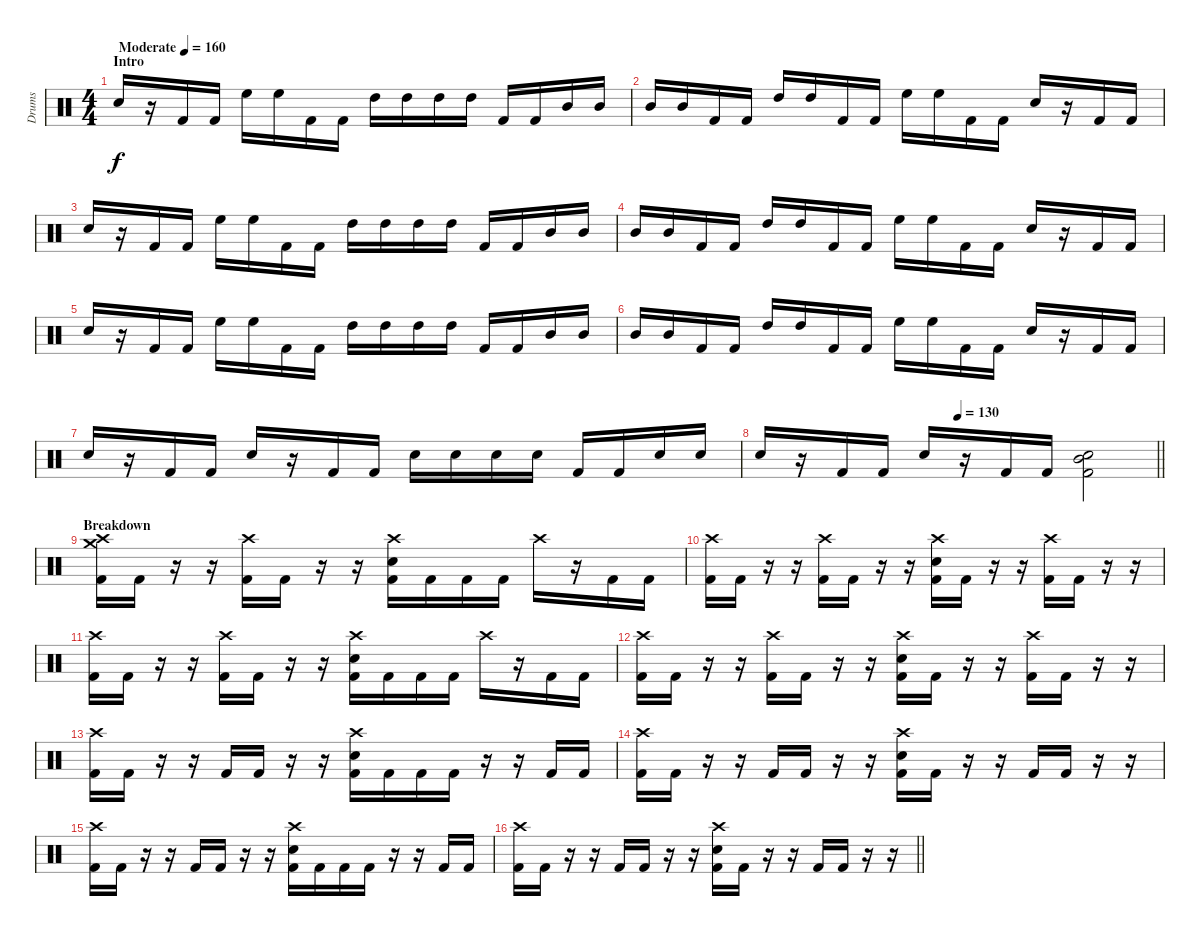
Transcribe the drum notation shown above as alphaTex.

\track ("Drums" "Drums") {instrument percussion}
\staff {score}
\articulation defaults
\ts (4 4)
\section ("" "Intro")
\tempo (160 "Moderate")
\clef neutral
\ks c "Electric Snare (hit)".16{dy f}
r.16 "Kick (hit) 2".16 "Kick (hit) 2".16 "High Floor Tom (hit)".16 "High Floor Tom (hit)".16 "Kick (hit) 2".16 "Kick (hit) 2".16 "High Tom (hit)".16 "High Tom (hit)".16 "High Tom (hit)".16 "High Tom (hit)".16 "Kick (hit) 2".16 "Kick (hit) 2".16 "Mid Tom (hit)".16 "Mid Tom (hit)".16 |
"Mid Tom (hit)".16 "Mid Tom (hit)".16 "Kick (hit) 2".16 "Kick (hit) 2".16 "High Tom (hit)".16 "High Tom (hit)".16 "Kick (hit) 2".16 "Kick (hit) 2".16 "High Floor Tom (hit)".16 "High Floor Tom (hit)".16 "Kick (hit) 2".16 "Kick (hit) 2".16 "Electric Snare (hit)".16 r.16 "Kick (hit) 2".16 "Kick (hit) 2".16 |
"Electric Snare (hit)".16 r.16 "Kick (hit) 2".16 "Kick (hit) 2".16 "High Floor Tom (hit)".16 "High Floor Tom (hit)".16 "Kick (hit) 2".16 "Kick (hit) 2".16 "High Tom (hit)".16 "High Tom (hit)".16 "High Tom (hit)".16 "High Tom (hit)".16 "Kick (hit) 2".16 "Kick (hit) 2".16 "Mid Tom (hit)".16 "Mid Tom (hit)".16 |
"Mid Tom (hit)".16 "Mid Tom (hit)".16 "Kick (hit) 2".16 "Kick (hit) 2".16 "High Tom (hit)".16 "High Tom (hit)".16 "Kick (hit) 2".16 "Kick (hit) 2".16 "High Floor Tom (hit)".16 "High Floor Tom (hit)".16 "Kick (hit) 2".16 "Kick (hit) 2".16 "Electric Snare (hit)".16 r.16 "Kick (hit) 2".16 "Kick (hit) 2".16 |
"Electric Snare (hit)".16 r.16 "Kick (hit) 2".16 "Kick (hit) 2".16 "High Floor Tom (hit)".16 "High Floor Tom (hit)".16 "Kick (hit) 2".16 "Kick (hit) 2".16 "High Tom (hit)".16 "High Tom (hit)".16 "High Tom (hit)".16 "High Tom (hit)".16 "Kick (hit) 2".16 "Kick (hit) 2".16 "Mid Tom (hit)".16 "Mid Tom (hit)".16 |
"Mid Tom (hit)".16 "Mid Tom (hit)".16 "Kick (hit) 2".16 "Kick (hit) 2".16 "High Tom (hit)".16 "High Tom (hit)".16 "Kick (hit) 2".16 "Kick (hit) 2".16 "High Floor Tom (hit)".16 "High Floor Tom (hit)".16 "Kick (hit) 2".16 "Kick (hit) 2".16 "Electric Snare (hit)".16 r.16 "Kick (hit) 2".16 "Kick (hit) 2".16 |
"Electric Snare (hit)".16 r.16 "Kick (hit) 2".16 "Kick (hit) 2".16 "Electric Snare (hit)".16 r.16 "Kick (hit) 2".16 "Kick (hit) 2".16 "Electric Snare (hit)".16 "Electric Snare (hit)".16 "Electric Snare (hit)".16 "Electric Snare (hit)".16 "Kick (hit) 2".16 "Kick (hit) 2".16 "Electric Snare (hit)".16 "Electric Snare (hit)".16 |
\tempo (130 0.5)
\barLineRight lightlight "Electric Snare (hit)".16
r.16 "Kick (hit) 2".16 "Kick (hit) 2".16 "Electric Snare (hit)".16 r.16 "Kick (hit) 2".16 "Kick (hit) 2".16 ("Mid Tom (hit)" "Electric Snare (hit)" "Kick (hit) 2").2 |
\section ("" "Breakdown")
("Crash medium (hit)" "Crash high (hit)" "Kick (hit) 2").16 "Kick (hit) 2".16 r.16 r.16 ("Crash high (hit)" "Kick (hit) 2").16 "Kick (hit) 2".16 r.16 r.16 ("Crash high (hit)" "Electric Snare (hit)" "Kick (hit) 2").16 "Kick (hit) 2".16 "Kick (hit) 2".16 "Kick (hit) 2".16 "Crash high (hit)".16 r.16 "Kick (hit) 2".16 "Kick (hit) 2".16 |
("Crash high (hit)" "Kick (hit) 2").16 "Kick (hit) 2".16 r.16 r.16 ("Crash high (hit)" "Kick (hit) 2").16 "Kick (hit) 2".16 r.16 r.16 ("Crash high (hit)" "Electric Snare (hit)" "Kick (hit) 2").16 "Kick (hit) 2".16 r.16 r.16 ("Crash high (hit)" "Kick (hit) 2").16 "Kick (hit) 2".16 r.16 r.16 |
("Crash high (hit)" "Kick (hit) 2").16 "Kick (hit) 2".16 r.16 r.16 ("Crash high (hit)" "Kick (hit) 2").16 "Kick (hit) 2".16 r.16 r.16 ("Crash high (hit)" "Electric Snare (hit)" "Kick (hit) 2").16 "Kick (hit) 2".16 "Kick (hit) 2".16 "Kick (hit) 2".16 "Crash high (hit)".16 r.16 "Kick (hit) 2".16 "Kick (hit) 2".16 |
("Crash high (hit)" "Kick (hit) 2").16 "Kick (hit) 2".16 r.16 r.16 ("Crash high (hit)" "Kick (hit) 2").16 "Kick (hit) 2".16 r.16 r.16 ("Crash high (hit)" "Electric Snare (hit)" "Kick (hit) 2").16 "Kick (hit) 2".16 r.16 r.16 ("Crash high (hit)" "Kick (hit) 2").16 "Kick (hit) 2".16 r.16 r.16 |
("Crash high (hit)" "Kick (hit) 2").16 "Kick (hit) 2".16 r.16 r.16 "Kick (hit) 2".16 "Kick (hit) 2".16 r.16 r.16 ("Crash high (hit)" "Electric Snare (hit)" "Kick (hit) 2").16 "Kick (hit) 2".16 "Kick (hit) 2".16 "Kick (hit) 2".16 r.16 r.16 "Kick (hit) 2".16 "Kick (hit) 2".16 |
("Crash high (hit)" "Kick (hit) 2").16 "Kick (hit) 2".16 r.16 r.16 "Kick (hit) 2".16 "Kick (hit) 2".16 r.16 r.16 ("Crash high (hit)" "Electric Snare (hit)" "Kick (hit) 2").16 "Kick (hit) 2".16 r.16 r.16 "Kick (hit) 2".16 "Kick (hit) 2".16 r.16 r.16 |
("Crash high (hit)" "Kick (hit) 2").16 "Kick (hit) 2".16 r.16 r.16 "Kick (hit) 2".16 "Kick (hit) 2".16 r.16 r.16 ("Crash high (hit)" "Electric Snare (hit)" "Kick (hit) 2").16 "Kick (hit) 2".16 "Kick (hit) 2".16 "Kick (hit) 2".16 r.16 r.16 "Kick (hit) 2".16 "Kick (hit) 2".16 |
\barLineRight lightlight
("Crash high (hit)" "Kick (hit) 2").16 "Kick (hit) 2".16 r.16 r.16 "Kick (hit) 2".16 "Kick (hit) 2".16 r.16 r.16 ("Crash high (hit)" "Electric Snare (hit)" "Kick (hit) 2").16 "Kick (hit) 2".16 r.16 r.16 "Kick (hit) 2".16 "Kick (hit) 2".16 r.16 r.16
